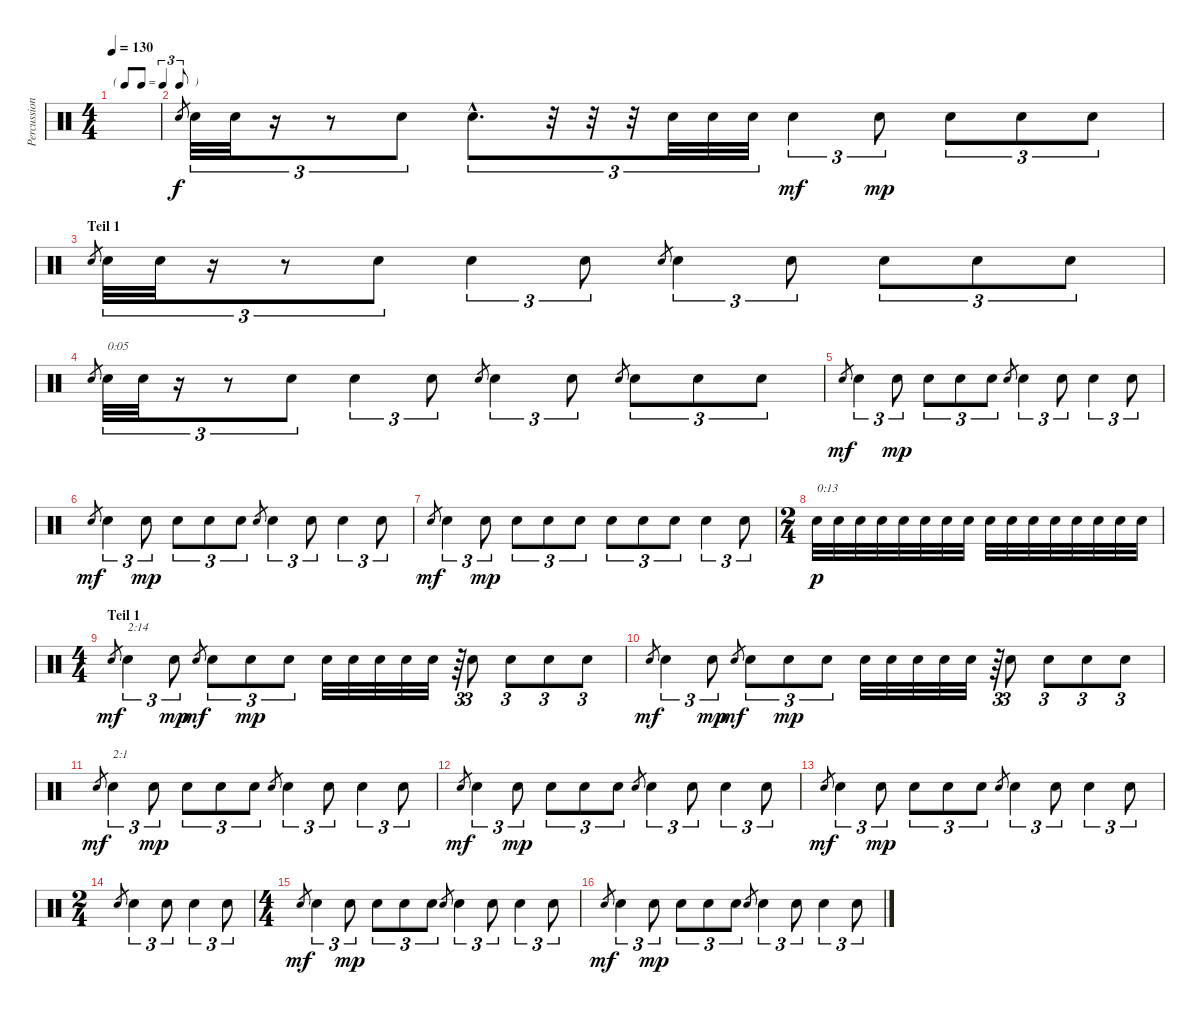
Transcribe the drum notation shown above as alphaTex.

\track ("Percussion" "Percussion") {instrument percussion}
\staff {score}
\articulation defaults
\ts (4 4)
\tf triplet8th
\tempo 130
\clef neutral
\ks c
|
"Electric Snare (hit)".8{gr} "Electric Snare (hit)".32{tu (3 2)} "Electric Snare (hit)".32{tu (3 2)} r.16{tu (3 2)} r.8{tu (3 2)} "Electric Snare (hit)".8{tu (3 2)} "Electric Snare (hit)"{hac}.8{d tu (3 2)} r.32{tu (3 2)} r.32{tu (3 2)} r.32{tu (3 2)} "Electric Snare (hit)".32{tu (3 2)} "Electric Snare (hit)".32{tu (3 2)} "Electric Snare (hit)".32{tu (3 2)} "Electric Snare (hit)".4{tu (3 2) dy mf} "Electric Snare (hit)".8{tu (3 2) dy mp} "Electric Snare (hit)".8{tu (3 2)} "Electric Snare (hit)".8{tu (3 2)} "Electric Snare (hit)".8{tu (3 2)} |
\section ("" "Teil 1")
"Electric Snare (hit)".8{gr} "Electric Snare (hit)".32{tu (3 2)} "Electric Snare (hit)".32{tu (3 2)} r.16{tu (3 2)} r.8{tu (3 2)} "Electric Snare (hit)".8{tu (3 2)} "Electric Snare (hit)".4{tu (3 2)} "Electric Snare (hit)".8{tu (3 2)} "Electric Snare (hit)".8{gr} "Electric Snare (hit)".4{tu (3 2)} "Electric Snare (hit)".8{tu (3 2)} "Electric Snare (hit)".8{tu (3 2)} "Electric Snare (hit)".8{tu (3 2)} "Electric Snare (hit)".8{tu (3 2)} |
"Electric Snare (hit)".8{gr} "Electric Snare (hit)".32{tu (3 2) txt "0:05"} "Electric Snare (hit)".32{tu (3 2)} r.16{tu (3 2)} r.8{tu (3 2)} "Electric Snare (hit)".8{tu (3 2)} "Electric Snare (hit)".4{tu (3 2)} "Electric Snare (hit)".8{tu (3 2)} "Electric Snare (hit)".8{gr} "Electric Snare (hit)".4{tu (3 2)} "Electric Snare (hit)".8{tu (3 2)} "Electric Snare (hit)".8{gr} "Electric Snare (hit)".8{tu (3 2)} "Electric Snare (hit)".8{tu (3 2)} "Electric Snare (hit)".8{tu (3 2)} |
"Electric Snare (hit)".8{gr dy mf} "Electric Snare (hit)".4{tu (3 2)} "Electric Snare (hit)".8{tu (3 2) dy mp} "Electric Snare (hit)".8{tu (3 2)} "Electric Snare (hit)".8{tu (3 2)} "Electric Snare (hit)".8{tu (3 2)} "Electric Snare (hit)".8{gr} "Electric Snare (hit)".4{tu (3 2)} "Electric Snare (hit)".8{tu (3 2)} "Electric Snare (hit)".4{tu (3 2)} "Electric Snare (hit)".8{tu (3 2)} |
"Electric Snare (hit)".8{gr dy mf} "Electric Snare (hit)".4{tu (3 2)} "Electric Snare (hit)".8{tu (3 2) dy mp} "Electric Snare (hit)".8{tu (3 2)} "Electric Snare (hit)".8{tu (3 2)} "Electric Snare (hit)".8{tu (3 2)} "Electric Snare (hit)".8{gr} "Electric Snare (hit)".4{tu (3 2)} "Electric Snare (hit)".8{tu (3 2)} "Electric Snare (hit)".4{tu (3 2)} "Electric Snare (hit)".8{tu (3 2)} |
"Electric Snare (hit)".8{gr dy mf} "Electric Snare (hit)".4{tu (3 2)} "Electric Snare (hit)".8{tu (3 2) dy mp} "Electric Snare (hit)".8{tu (3 2)} "Electric Snare (hit)".8{tu (3 2)} "Electric Snare (hit)".8{tu (3 2)} "Electric Snare (hit)".8{tu (3 2)} "Electric Snare (hit)".8{tu (3 2)} "Electric Snare (hit)".8{tu (3 2)} "Electric Snare (hit)".4{tu (3 2)} "Electric Snare (hit)".8{tu (3 2)} |
\ts (2 4)
"Electric Snare (hit)".32{txt "0:13" dy p} "Electric Snare (hit)".32 "Electric Snare (hit)".32 "Electric Snare (hit)".32 "Electric Snare (hit)".32 "Electric Snare (hit)".32 "Electric Snare (hit)".32 "Electric Snare (hit)".32 "Electric Snare (hit)".32 "Electric Snare (hit)".32 "Electric Snare (hit)".32 "Electric Snare (hit)".32 "Electric Snare (hit)".32 "Electric Snare (hit)".32 "Electric Snare (hit)".32 "Electric Snare (hit)".32 |
\ts (4 4)
\section ("" "Teil 1")
"Electric Snare (hit)".8{gr dy mf} "Electric Snare (hit)".4{tu (3 2) txt "2:14"} "Electric Snare (hit)".8{tu (3 2) dy mp} "Electric Snare (hit)".8{gr dy mf} "Electric Snare (hit)".8{tu (3 2)} "Electric Snare (hit)".8{tu (3 2) dy mp} "Electric Snare (hit)".8{tu (3 2)} "Electric Snare (hit)".32 "Electric Snare (hit)".32 "Electric Snare (hit)".32 "Electric Snare (hit)".32 "Electric Snare (hit)".32 r.64{tu (3 2)} "Electric Snare (hit)".8{tu (3 2)} "Electric Snare (hit)".8{tu (3 2)} "Electric Snare (hit)".8{tu (3 2)} "Electric Snare (hit)".8{tu (3 2)} |
"Electric Snare (hit)".8{gr dy mf} "Electric Snare (hit)".4{tu (3 2)} "Electric Snare (hit)".8{tu (3 2) dy mp} "Electric Snare (hit)".8{gr dy mf} "Electric Snare (hit)".8{tu (3 2)} "Electric Snare (hit)".8{tu (3 2) dy mp} "Electric Snare (hit)".8{tu (3 2)} "Electric Snare (hit)".32 "Electric Snare (hit)".32 "Electric Snare (hit)".32 "Electric Snare (hit)".32 "Electric Snare (hit)".32 r.64{tu (3 2)} "Electric Snare (hit)".8{tu (3 2)} "Electric Snare (hit)".8{tu (3 2)} "Electric Snare (hit)".8{tu (3 2)} "Electric Snare (hit)".8{tu (3 2)} |
"Electric Snare (hit)".8{gr dy mf} "Electric Snare (hit)".4{tu (3 2) txt "2:1"} "Electric Snare (hit)".8{tu (3 2) dy mp} "Electric Snare (hit)".8{tu (3 2)} "Electric Snare (hit)".8{tu (3 2)} "Electric Snare (hit)".8{tu (3 2)} "Electric Snare (hit)".8{gr} "Electric Snare (hit)".4{tu (3 2)} "Electric Snare (hit)".8{tu (3 2)} "Electric Snare (hit)".4{tu (3 2)} "Electric Snare (hit)".8{tu (3 2)} |
"Electric Snare (hit)".8{gr dy mf} "Electric Snare (hit)".4{tu (3 2)} "Electric Snare (hit)".8{tu (3 2) dy mp} "Electric Snare (hit)".8{tu (3 2)} "Electric Snare (hit)".8{tu (3 2)} "Electric Snare (hit)".8{tu (3 2)} "Electric Snare (hit)".8{gr} "Electric Snare (hit)".4{tu (3 2)} "Electric Snare (hit)".8{tu (3 2)} "Electric Snare (hit)".4{tu (3 2)} "Electric Snare (hit)".8{tu (3 2)} |
"Electric Snare (hit)".8{gr dy mf} "Electric Snare (hit)".4{tu (3 2)} "Electric Snare (hit)".8{tu (3 2) dy mp} "Electric Snare (hit)".8{tu (3 2)} "Electric Snare (hit)".8{tu (3 2)} "Electric Snare (hit)".8{tu (3 2)} "Electric Snare (hit)".8{gr} "Electric Snare (hit)".4{tu (3 2)} "Electric Snare (hit)".8{tu (3 2)} "Electric Snare (hit)".4{tu (3 2)} "Electric Snare (hit)".8{tu (3 2)} |
\ts (2 4)
"Electric Snare (hit)".8{gr} "Electric Snare (hit)".4{tu (3 2)} "Electric Snare (hit)".8{tu (3 2)} "Electric Snare (hit)".4{tu (3 2)} "Electric Snare (hit)".8{tu (3 2)} |
\ts (4 4)
"Electric Snare (hit)".8{gr dy mf} "Electric Snare (hit)".4{tu (3 2)} "Electric Snare (hit)".8{tu (3 2) dy mp} "Electric Snare (hit)".8{tu (3 2)} "Electric Snare (hit)".8{tu (3 2)} "Electric Snare (hit)".8{tu (3 2)} "Electric Snare (hit)".8{gr} "Electric Snare (hit)".4{tu (3 2)} "Electric Snare (hit)".8{tu (3 2)} "Electric Snare (hit)".4{tu (3 2)} "Electric Snare (hit)".8{tu (3 2)} |
"Electric Snare (hit)".8{gr dy mf} "Electric Snare (hit)".4{tu (3 2)} "Electric Snare (hit)".8{tu (3 2) dy mp} "Electric Snare (hit)".8{tu (3 2)} "Electric Snare (hit)".8{tu (3 2)} "Electric Snare (hit)".8{tu (3 2)} "Electric Snare (hit)".8{gr} "Electric Snare (hit)".4{tu (3 2)} "Electric Snare (hit)".8{tu (3 2)} "Electric Snare (hit)".4{tu (3 2)} "Electric Snare (hit)".8{tu (3 2)}
